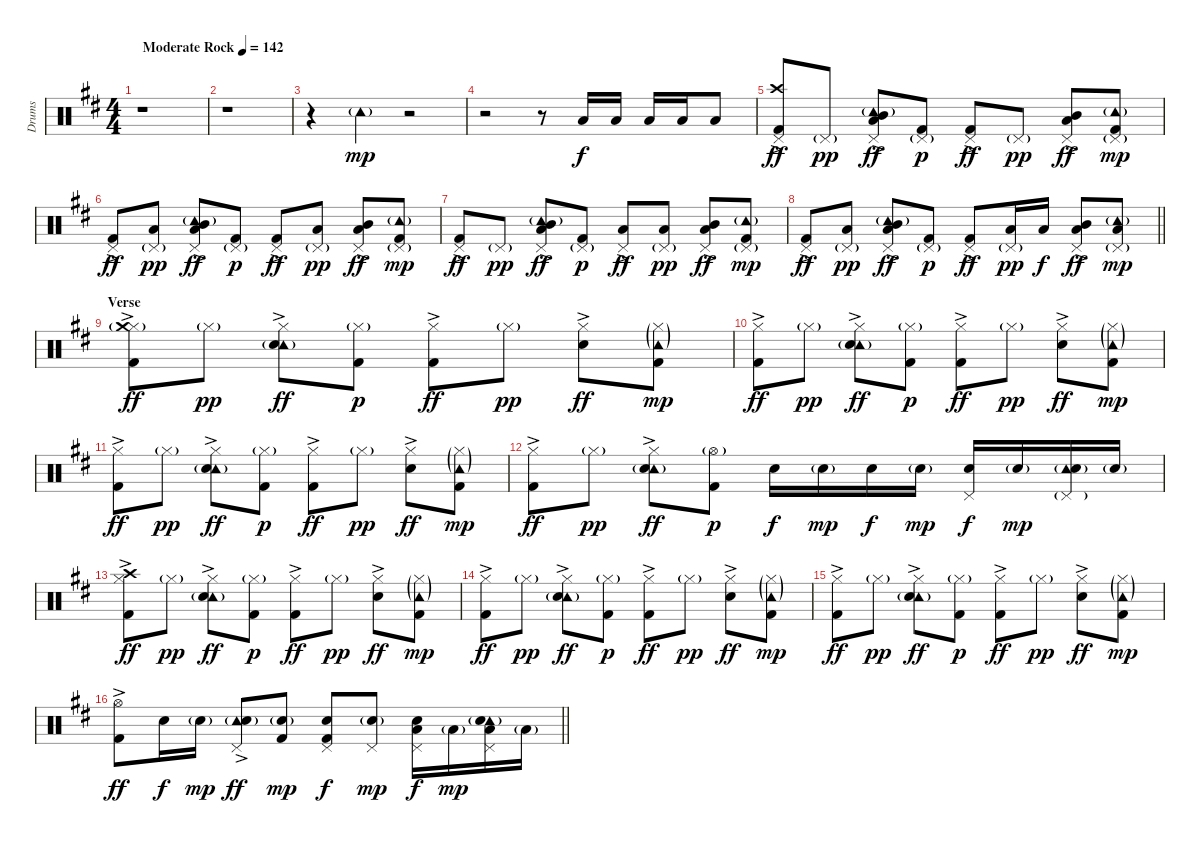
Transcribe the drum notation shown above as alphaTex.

\track ("Drums" "Drums") {instrument percussion}
\staff {score}
\articulation defaults
\ts (4 4)
\tempo (142 "Moderate Rock")
\clef neutral
\ks d
r.1{dy mp} |
r.1 |
r.4 "Tambourine (hit)"{g}.4 r.2 |
r.2 r.8 "Low Tom (hit)".16{dy f} "Low Tom (hit)".16 "Low Tom (hit)".16 "Low Tom (hit)".16 "Low Floor Tom (hit)".8 |
("Pedal Hi-Hat (hit)" "Crash high (hit)" "Kick (hit) 2"{ac}).8{dy ff} "Pedal Hi-Hat (hit)"{g}.8{dy pp} ("Pedal Hi-Hat (hit)" "Tambourine (hit)"{g} "Mid Tom (hit)" "Low Tom (hit)"{ac}).8{dy ff} ("Pedal Hi-Hat (hit)"{g} "Kick (hit) 2").8{dy p} ("Pedal Hi-Hat (hit)" "Kick (hit) 2"{ac}).8{dy ff} "Pedal Hi-Hat (hit)"{g}.8{dy pp} ("Pedal Hi-Hat (hit)" "Mid Tom (hit)" "Low Tom (hit)"{ac}).8{dy ff} ("Pedal Hi-Hat (hit)"{g} "Tambourine (hit)"{g} "Kick (hit) 2").8{dy mp} |
("Pedal Hi-Hat (hit)" "Kick (hit) 2"{ac}).8{dy ff} ("Pedal Hi-Hat (hit)"{g} "Low Tom (hit)").8{dy pp} ("Pedal Hi-Hat (hit)" "Tambourine (hit)"{g} "Mid Tom (hit)" "Low Tom (hit)"{ac}).8{dy ff} ("Pedal Hi-Hat (hit)"{g} "Kick (hit) 2").8{dy p} ("Pedal Hi-Hat (hit)" "Kick (hit) 2"{ac}).8{dy ff} ("Pedal Hi-Hat (hit)"{g} "Low Tom (hit)").8{dy pp} ("Pedal Hi-Hat (hit)" "Mid Tom (hit)" "Low Tom (hit)"{ac}).8{dy ff} ("Pedal Hi-Hat (hit)"{g} "Tambourine (hit)"{g} "Kick (hit) 2").8{dy mp} |
("Pedal Hi-Hat (hit)" "Kick (hit) 2"{ac}).8{dy ff} "Pedal Hi-Hat (hit)"{g}.8{dy pp} ("Pedal Hi-Hat (hit)" "Tambourine (hit)"{g} "Mid Tom (hit)" "Low Tom (hit)"{ac}).8{dy ff} ("Pedal Hi-Hat (hit)"{g} "Kick (hit) 2").8{dy p} ("Pedal Hi-Hat (hit)" "Low Tom (hit)"{ac}).8{dy ff} ("Pedal Hi-Hat (hit)"{g} "Low Tom (hit)").8{dy pp} ("Pedal Hi-Hat (hit)" "Mid Tom (hit)" "Low Tom (hit)"{ac}).8{dy ff} ("Pedal Hi-Hat (hit)"{g} "Tambourine (hit)"{g} "Kick (hit) 2").8{dy mp} |
\barLineRight lightlight
("Pedal Hi-Hat (hit)" "Kick (hit) 2"{ac}).8{dy ff} ("Pedal Hi-Hat (hit)"{g} "Low Tom (hit)").8{dy pp} ("Pedal Hi-Hat (hit)" "Tambourine (hit)"{g} "Mid Tom (hit)" "Low Tom (hit)"{ac}).8{dy ff} ("Pedal Hi-Hat (hit)"{g} "Kick (hit) 2").8{dy p} ("Pedal Hi-Hat (hit)" "Kick (hit) 2"{ac}).8{dy ff} ("Pedal Hi-Hat (hit)"{g} "Low Tom (hit)").16{dy pp} "Low Tom (hit)".16{dy f} ("Pedal Hi-Hat (hit)" "Mid Tom (hit)" "Low Tom (hit)"{ac}).8{dy ff} ("Pedal Hi-Hat (hit)"{g} "Tambourine (hit)"{g} "Low Tom (hit)").8{dy mp} |
\section ("" "Verse")
("Hi-Hat (closed)" "Crash medium (hit)"{g} "Kick (hit) 2"{ac}).8{dy ff} "Hi-Hat (closed)"{g}.8{dy pp} ("Hi-Hat (closed)" "Tambourine (hit)"{g} "Snare (hit) 2"{ac}).8{dy ff} ("Hi-Hat (closed)"{g} "Kick (hit) 2").8{dy p} ("Hi-Hat (closed)" "Kick (hit) 2"{ac}).8{dy ff} "Hi-Hat (closed)"{g}.8{dy pp} ("Hi-Hat (closed)" "Snare (hit) 2"{ac}).8{dy ff} ("Hi-Hat (closed)"{g} "Tambourine (hit)"{g} "Kick (hit) 2").8{dy mp} |
("Hi-Hat (closed)" "Kick (hit) 2"{ac}).8{dy ff} "Hi-Hat (closed)"{g}.8{dy pp} ("Hi-Hat (closed)" "Tambourine (hit)"{g} "Snare (hit) 2"{ac}).8{dy ff} ("Hi-Hat (closed)"{g} "Kick (hit) 2").8{dy p} ("Hi-Hat (closed)" "Kick (hit) 2"{ac}).8{dy ff} "Hi-Hat (closed)"{g}.8{dy pp} ("Hi-Hat (closed)" "Snare (hit) 2"{ac}).8{dy ff} ("Hi-Hat (closed)"{g} "Tambourine (hit)"{g} "Kick (hit) 2").8{dy mp} |
("Hi-Hat (closed)" "Kick (hit) 2"{ac}).8{dy ff} "Hi-Hat (closed)"{g}.8{dy pp} ("Hi-Hat (closed)" "Tambourine (hit)"{g} "Snare (hit) 2"{ac}).8{dy ff} ("Hi-Hat (closed)"{g} "Kick (hit) 2").8{dy p} ("Hi-Hat (closed)" "Kick (hit) 2"{ac}).8{dy ff} "Hi-Hat (closed)"{g}.8{dy pp} ("Hi-Hat (closed)" "Snare (hit) 2"{ac}).8{dy ff} ("Hi-Hat (closed)"{g} "Tambourine (hit)"{g} "Kick (hit) 2").8{dy mp} |
("Hi-Hat (closed)" "Kick (hit) 2"{ac}).8{dy ff} "Hi-Hat (closed)"{g}.8{dy pp} ("Hi-Hat (closed)" "Tambourine (hit)"{g} "Snare (hit) 2"{ac}).8{dy ff} ("Hi-Hat (open)"{g} "Kick (hit) 2").8{dy p} "Snare (hit) 2".16{dy f} "Snare (hit) 2"{g}.16{dy mp} "Snare (hit) 2".16{dy f} "Snare (hit) 2"{g}.16{dy mp} ("Pedal Hi-Hat (hit)" "Snare (hit) 2").16{dy f} "Snare (hit) 2"{g}.16{dy mp} ("Pedal Hi-Hat (hit)"{g} "Tambourine (hit)"{g} "Snare (hit) 2").16 "Snare (hit) 2"{g}.16 |
("Hi-Hat (closed)" "Crash high (hit)" "Kick (hit) 2"{ac}).8{dy ff} "Hi-Hat (closed)"{g}.8{dy pp} ("Hi-Hat (closed)" "Tambourine (hit)"{g} "Snare (hit) 2"{ac}).8{dy ff} ("Hi-Hat (closed)"{g} "Kick (hit) 2").8{dy p} ("Hi-Hat (closed)" "Kick (hit) 2"{ac}).8{dy ff} "Hi-Hat (closed)"{g}.8{dy pp} ("Hi-Hat (closed)" "Snare (hit) 2"{ac}).8{dy ff} ("Hi-Hat (closed)"{g} "Tambourine (hit)"{g} "Kick (hit) 2").8{dy mp} |
("Hi-Hat (closed)" "Kick (hit) 2"{ac}).8{dy ff} "Hi-Hat (closed)"{g}.8{dy pp} ("Hi-Hat (closed)" "Tambourine (hit)"{g} "Snare (hit) 2"{ac}).8{dy ff} ("Hi-Hat (closed)"{g} "Kick (hit) 2").8{dy p} ("Hi-Hat (closed)" "Kick (hit) 2"{ac}).8{dy ff} "Hi-Hat (closed)"{g}.8{dy pp} ("Hi-Hat (closed)" "Snare (hit) 2"{ac}).8{dy ff} ("Hi-Hat (closed)"{g} "Tambourine (hit)"{g} "Kick (hit) 2").8{dy mp} |
("Hi-Hat (closed)" "Kick (hit) 2"{ac}).8{dy ff} "Hi-Hat (closed)"{g}.8{dy pp} ("Hi-Hat (closed)" "Tambourine (hit)"{g} "Snare (hit) 2"{ac}).8{dy ff} ("Hi-Hat (closed)"{g} "Kick (hit) 2").8{dy p} ("Hi-Hat (closed)" "Kick (hit) 2"{ac}).8{dy ff} "Hi-Hat (closed)"{g}.8{dy pp} ("Hi-Hat (closed)" "Snare (hit) 2"{ac}).8{dy ff} ("Hi-Hat (closed)"{g} "Tambourine (hit)"{g} "Kick (hit) 2").8{dy mp} |
\barLineRight lightlight
("Hi-Hat (open)" "Kick (hit) 2"{ac}).8{dy ff} "Snare (hit) 2".16{dy f} "Snare (hit) 2"{g}.16{dy mp} ("Pedal Hi-Hat (hit)" "Tambourine (hit)"{g} "Snare (hit) 2"{ac}).8{dy ff} ("Snare (hit) 2"{g} "Kick (hit) 2").8{dy mp} ("Pedal Hi-Hat (hit)" "Snare (hit) 2" "Kick (hit) 2").8{dy f} ("Pedal Hi-Hat (hit)" "Snare (hit) 2"{g}).8{dy mp} ("Pedal Hi-Hat (hit)" "Snare (hit) 2" "Low Tom (hit)").16{dy f} "Low Tom (hit)"{g}.16{dy mp} ("Pedal Hi-Hat (hit)" "Tambourine (hit)"{g} "Snare (hit) 2"{g} "Low Floor Tom (hit)").16 "Low Floor Tom (hit)"{g}.16
